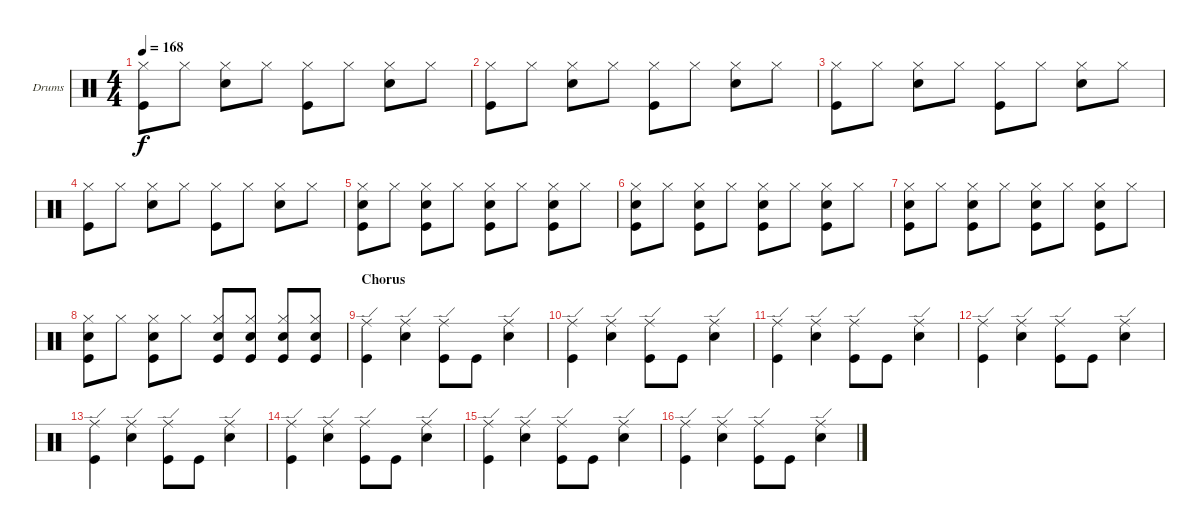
\bracketExtendMode groupsimilarinstruments
\firstSystemTrackNameOrientation horizontal
\otherSystemsTrackNameOrientation horizontal
\track ("Drumkit" "Drums") {instrument percussion}
\staff {score}
\articulation defaults
\ts (4 4)
\tempo 168
\clef neutral
\ks c
("Kick (hit)" "Hi-Hat (closed)").8{dy f} "Hi-Hat (closed)".8 ("Snare (hit) 2" "Hi-Hat (closed)").8 "Hi-Hat (closed)".8 ("Kick (hit)" "Hi-Hat (closed)").8 "Hi-Hat (closed)".8 ("Snare (hit) 2" "Hi-Hat (closed)").8 "Hi-Hat (closed)".8 |
("Kick (hit)" "Hi-Hat (closed)").8 "Hi-Hat (closed)".8 ("Snare (hit) 2" "Hi-Hat (closed)").8 "Hi-Hat (closed)".8 ("Kick (hit)" "Hi-Hat (closed)").8 "Hi-Hat (closed)".8 ("Snare (hit) 2" "Hi-Hat (closed)").8 "Hi-Hat (closed)".8 |
("Kick (hit)" "Hi-Hat (closed)").8 "Hi-Hat (closed)".8 ("Snare (hit) 2" "Hi-Hat (closed)").8 "Hi-Hat (closed)".8 ("Kick (hit)" "Hi-Hat (closed)").8 "Hi-Hat (closed)".8 ("Snare (hit) 2" "Hi-Hat (closed)").8 "Hi-Hat (closed)".8 |
("Kick (hit)" "Hi-Hat (closed)").8 "Hi-Hat (closed)".8 ("Snare (hit) 2" "Hi-Hat (closed)").8 "Hi-Hat (closed)".8 ("Kick (hit)" "Hi-Hat (closed)").8 "Hi-Hat (closed)".8 ("Snare (hit) 2" "Hi-Hat (closed)").8 "Hi-Hat (closed)".8 |
("Snare (hit) 2" "Kick (hit)" "Hi-Hat (closed)").8 "Hi-Hat (closed)".8 ("Snare (hit) 2" "Kick (hit)" "Hi-Hat (closed)").8 "Hi-Hat (closed)".8 ("Snare (hit) 2" "Kick (hit)" "Hi-Hat (closed)").8 "Hi-Hat (closed)".8 ("Snare (hit) 2" "Kick (hit)" "Hi-Hat (closed)").8 "Hi-Hat (closed)".8 |
("Snare (hit) 2" "Kick (hit)" "Hi-Hat (closed)").8 "Hi-Hat (closed)".8 ("Snare (hit) 2" "Kick (hit)" "Hi-Hat (closed)").8 "Hi-Hat (closed)".8 ("Snare (hit) 2" "Kick (hit)" "Hi-Hat (closed)").8 "Hi-Hat (closed)".8 ("Snare (hit) 2" "Kick (hit)" "Hi-Hat (closed)").8 "Hi-Hat (closed)".8 |
("Snare (hit) 2" "Kick (hit)" "Hi-Hat (closed)").8 "Hi-Hat (closed)".8 ("Snare (hit) 2" "Kick (hit)" "Hi-Hat (closed)").8 "Hi-Hat (closed)".8 ("Snare (hit) 2" "Kick (hit)" "Hi-Hat (closed)").8 "Hi-Hat (closed)".8 ("Snare (hit) 2" "Kick (hit)" "Hi-Hat (closed)").8 "Hi-Hat (closed)".8 |
("Snare (hit) 2" "Kick (hit)" "Hi-Hat (closed)").8 "Hi-Hat (closed)".8 ("Snare (hit) 2" "Kick (hit)" "Hi-Hat (closed)").8 "Hi-Hat (closed)".8 ("Snare (hit) 2" "Kick (hit)" "Hi-Hat (closed)").8 ("Snare (hit) 2" "Kick (hit)" "Hi-Hat (closed)").8 ("Snare (hit) 2" "Kick (hit)" "Hi-Hat (closed)").8 ("Snare (hit) 2" "Kick (hit)" "Hi-Hat (closed)").8 |
\section ("" "Chorus")
("Kick (hit)" "Ride (edge)").4 ("Snare (hit) 2" "Ride (edge)").4 ("Kick (hit)" "Ride (edge)").8 "Kick (hit)".8 ("Snare (hit) 2" "Ride (edge)").4 |
("Kick (hit)" "Ride (edge)").4 ("Snare (hit) 2" "Ride (edge)").4 ("Kick (hit)" "Ride (edge)").8 "Kick (hit)".8 ("Snare (hit) 2" "Ride (edge)").4 |
("Kick (hit)" "Ride (edge)").4 ("Snare (hit) 2" "Ride (edge)").4 ("Kick (hit)" "Ride (edge)").8 "Kick (hit)".8 ("Snare (hit) 2" "Ride (edge)").4 |
("Kick (hit)" "Ride (edge)").4 ("Snare (hit) 2" "Ride (edge)").4 ("Kick (hit)" "Ride (edge)").8 "Kick (hit)".8 ("Snare (hit) 2" "Ride (edge)").4 |
("Kick (hit)" "Ride (edge)").4 ("Snare (hit) 2" "Ride (edge)").4 ("Kick (hit)" "Ride (edge)").8 "Kick (hit)".8 ("Snare (hit) 2" "Ride (edge)").4 |
("Kick (hit)" "Ride (edge)").4 ("Snare (hit) 2" "Ride (edge)").4 ("Kick (hit)" "Ride (edge)").8 "Kick (hit)".8 ("Snare (hit) 2" "Ride (edge)").4 |
("Kick (hit)" "Ride (edge)").4 ("Snare (hit) 2" "Ride (edge)").4 ("Kick (hit)" "Ride (edge)").8 "Kick (hit)".8 ("Snare (hit) 2" "Ride (edge)").4 |
("Kick (hit)" "Ride (edge)").4 ("Snare (hit) 2" "Ride (edge)").4 ("Kick (hit)" "Ride (edge)").8 "Kick (hit)".8 ("Snare (hit) 2" "Ride (edge)").4
